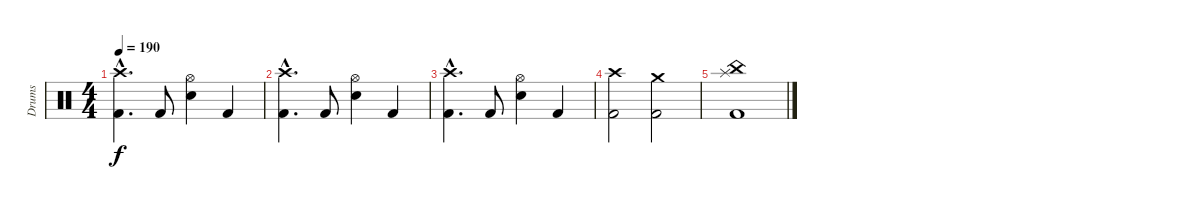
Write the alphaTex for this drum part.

\track ("Drums" "Drums") {instrument percussion}
\staff {score}
\articulation defaults
\ts (4 4)
\tempo 190
\clef neutral
\ks c
("Crash high (hit)"{hac} "Kick (hit) 2"{hac}).4{d dy f} "Kick (hit) 2".8 ("Electric Snare (hit)" "Hi-Hat (open)").4 "Kick (hit) 2".4 |
("Crash high (hit)"{hac} "Kick (hit) 2"{hac}).4{d} "Kick (hit) 2".8 ("Electric Snare (hit)" "Hi-Hat (open)").4 "Kick (hit) 2".4 |
("Crash high (hit)"{hac} "Kick (hit) 2"{hac}).4{d} "Kick (hit) 2".8 ("Electric Snare (hit)" "Hi-Hat (open)").4 "Kick (hit) 2".4 |
("Crash high (hit)" "Kick (hit) 2").2 ("Crash medium (hit)" "Kick (hit) 2").2 |
("China (hit)" "Splash (hit)" "Kick (hit) 2").1
